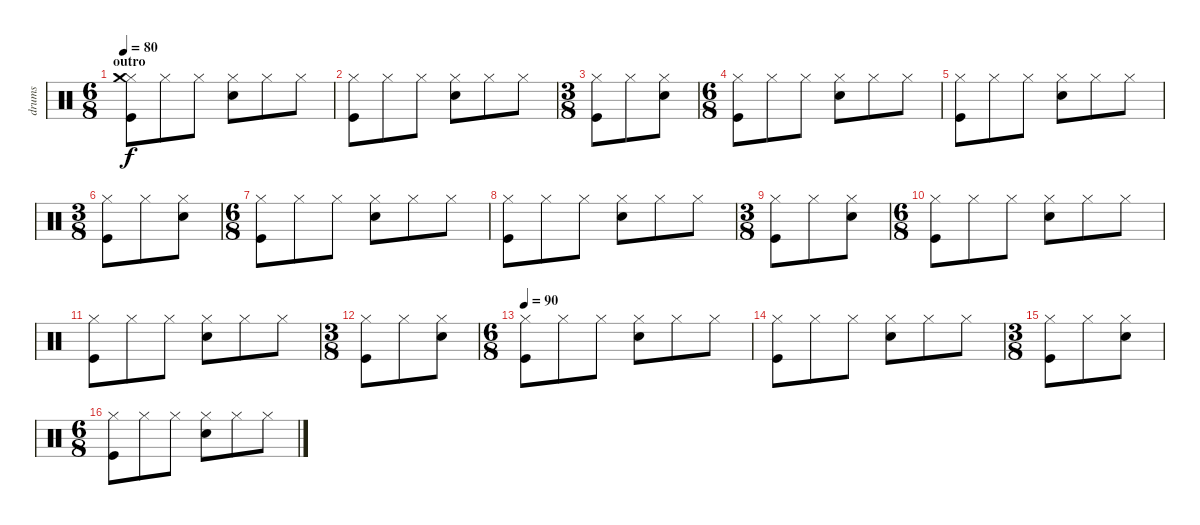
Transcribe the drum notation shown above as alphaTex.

\track ("drums" "drums") {instrument percussion}
\staff {score}
\articulation defaults
\ts (6 8)
\section ("" "outro")
\tempo 80
\clef neutral
\ks c
("Hi-Hat (closed)" "Crash medium (hit)" "Kick (hit)").8{dy f} "Hi-Hat (closed)".8 "Hi-Hat (closed)".8 ("Hi-Hat (closed)" "Snare (hit) 2").8 "Hi-Hat (closed)".8 "Hi-Hat (closed)".8 |
("Hi-Hat (closed)" "Kick (hit)").8 "Hi-Hat (closed)".8 "Hi-Hat (closed)".8 ("Hi-Hat (closed)" "Snare (hit) 2").8 "Hi-Hat (closed)".8 "Hi-Hat (closed)".8 |
\ts (3 8)
("Hi-Hat (closed)" "Kick (hit)").8 "Hi-Hat (closed)".8 ("Hi-Hat (closed)" "Snare (hit) 2").8 |
\ts (6 8)
("Hi-Hat (closed)" "Kick (hit)").8 "Hi-Hat (closed)".8 "Hi-Hat (closed)".8 ("Hi-Hat (closed)" "Snare (hit) 2").8 "Hi-Hat (closed)".8 "Hi-Hat (closed)".8 |
("Hi-Hat (closed)" "Kick (hit)").8 "Hi-Hat (closed)".8 "Hi-Hat (closed)".8 ("Hi-Hat (closed)" "Snare (hit) 2").8 "Hi-Hat (closed)".8 "Hi-Hat (closed)".8 |
\ts (3 8)
("Hi-Hat (closed)" "Kick (hit)").8 "Hi-Hat (closed)".8 ("Hi-Hat (closed)" "Snare (hit) 2").8 |
\ts (6 8)
("Hi-Hat (closed)" "Kick (hit)").8 "Hi-Hat (closed)".8 "Hi-Hat (closed)".8 ("Hi-Hat (closed)" "Snare (hit) 2").8 "Hi-Hat (closed)".8 "Hi-Hat (closed)".8 |
("Hi-Hat (closed)" "Kick (hit)").8 "Hi-Hat (closed)".8 "Hi-Hat (closed)".8 ("Hi-Hat (closed)" "Snare (hit) 2").8 "Hi-Hat (closed)".8 "Hi-Hat (closed)".8 |
\ts (3 8)
("Hi-Hat (closed)" "Kick (hit)").8 "Hi-Hat (closed)".8 ("Hi-Hat (closed)" "Snare (hit) 2").8 |
\ts (6 8)
("Hi-Hat (closed)" "Kick (hit)").8 "Hi-Hat (closed)".8 "Hi-Hat (closed)".8 ("Hi-Hat (closed)" "Snare (hit) 2").8 "Hi-Hat (closed)".8 "Hi-Hat (closed)".8 |
("Hi-Hat (closed)" "Kick (hit)").8 "Hi-Hat (closed)".8 "Hi-Hat (closed)".8 ("Hi-Hat (closed)" "Snare (hit) 2").8 "Hi-Hat (closed)".8 "Hi-Hat (closed)".8 |
\ts (3 8)
("Hi-Hat (closed)" "Kick (hit)").8 "Hi-Hat (closed)".8 ("Hi-Hat (closed)" "Snare (hit) 2").8 |
\ts (6 8)
\tempo 90
("Hi-Hat (closed)" "Kick (hit)").8 "Hi-Hat (closed)".8 "Hi-Hat (closed)".8 ("Hi-Hat (closed)" "Snare (hit) 2").8 "Hi-Hat (closed)".8 "Hi-Hat (closed)".8 |
("Hi-Hat (closed)" "Kick (hit)").8 "Hi-Hat (closed)".8 "Hi-Hat (closed)".8 ("Hi-Hat (closed)" "Snare (hit) 2").8 "Hi-Hat (closed)".8 "Hi-Hat (closed)".8 |
\ts (3 8)
("Hi-Hat (closed)" "Kick (hit)").8 "Hi-Hat (closed)".8 ("Hi-Hat (closed)" "Snare (hit) 2").8 |
\ts (6 8)
("Hi-Hat (closed)" "Kick (hit)").8 "Hi-Hat (closed)".8 "Hi-Hat (closed)".8 ("Hi-Hat (closed)" "Snare (hit) 2").8 "Hi-Hat (closed)".8 "Hi-Hat (closed)".8
